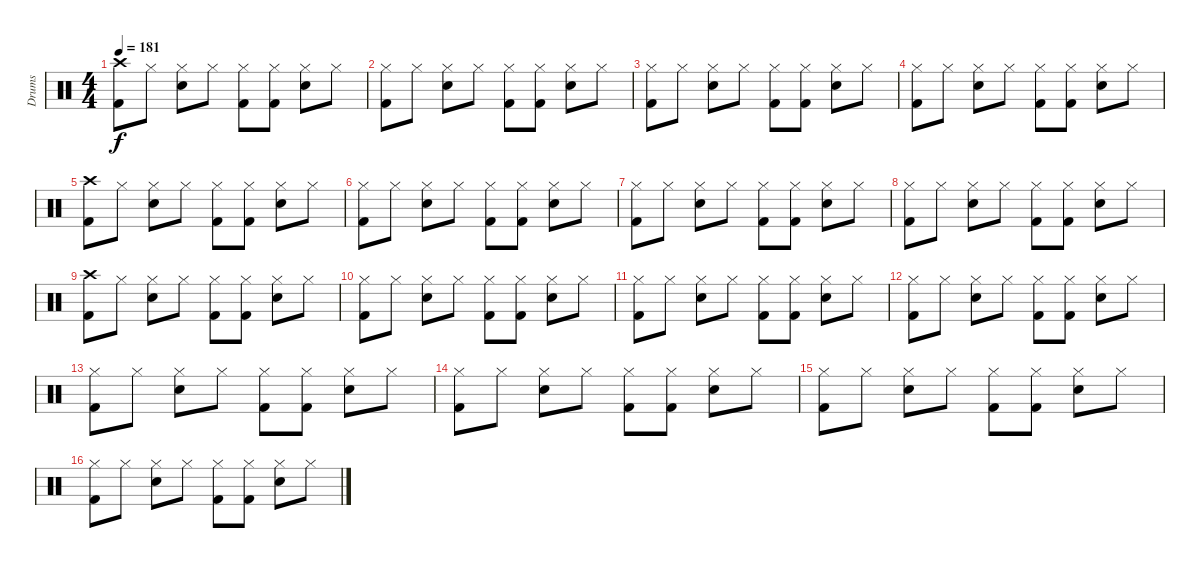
\track ("Drums" "Drums") {instrument percussion}
\staff {score}
\articulation defaults
\ts (4 4)
\tempo 181
\clef neutral
\ks c
("Crash high (hit)" "Kick (hit) 2").8{dy f} "Hi-Hat (closed)".8 ("Hi-Hat (closed)" "Snare (hit) 2").8 "Hi-Hat (closed)".8 ("Hi-Hat (closed)" "Kick (hit) 2").8 ("Hi-Hat (closed)" "Kick (hit) 2").8 ("Hi-Hat (closed)" "Snare (hit) 2").8 "Hi-Hat (closed)".8 |
("Hi-Hat (closed)" "Kick (hit) 2").8 "Hi-Hat (closed)".8 ("Hi-Hat (closed)" "Snare (hit) 2").8 "Hi-Hat (closed)".8 ("Hi-Hat (closed)" "Kick (hit) 2").8 ("Hi-Hat (closed)" "Kick (hit) 2").8 ("Hi-Hat (closed)" "Snare (hit) 2").8 "Hi-Hat (closed)".8 |
("Hi-Hat (closed)" "Kick (hit) 2").8 "Hi-Hat (closed)".8 ("Hi-Hat (closed)" "Snare (hit) 2").8 "Hi-Hat (closed)".8 ("Hi-Hat (closed)" "Kick (hit) 2").8 ("Hi-Hat (closed)" "Kick (hit) 2").8 ("Hi-Hat (closed)" "Snare (hit) 2").8 "Hi-Hat (closed)".8 |
("Hi-Hat (closed)" "Kick (hit) 2").8 "Hi-Hat (closed)".8 ("Hi-Hat (closed)" "Snare (hit) 2").8 "Hi-Hat (closed)".8 ("Hi-Hat (closed)" "Kick (hit) 2").8 ("Hi-Hat (closed)" "Kick (hit) 2").8 ("Hi-Hat (closed)" "Snare (hit) 2").8 "Hi-Hat (closed)".8 |
("Crash high (hit)" "Kick (hit) 2").8 "Hi-Hat (closed)".8 ("Hi-Hat (closed)" "Snare (hit) 2").8 "Hi-Hat (closed)".8 ("Hi-Hat (closed)" "Kick (hit) 2").8 ("Hi-Hat (closed)" "Kick (hit) 2").8 ("Hi-Hat (closed)" "Snare (hit) 2").8 "Hi-Hat (closed)".8 |
("Hi-Hat (closed)" "Kick (hit) 2").8 "Hi-Hat (closed)".8 ("Hi-Hat (closed)" "Snare (hit) 2").8 "Hi-Hat (closed)".8 ("Hi-Hat (closed)" "Kick (hit) 2").8 ("Hi-Hat (closed)" "Kick (hit) 2").8 ("Hi-Hat (closed)" "Snare (hit) 2").8 "Hi-Hat (closed)".8 |
("Hi-Hat (closed)" "Kick (hit) 2").8 "Hi-Hat (closed)".8 ("Hi-Hat (closed)" "Snare (hit) 2").8 "Hi-Hat (closed)".8 ("Hi-Hat (closed)" "Kick (hit) 2").8 ("Hi-Hat (closed)" "Kick (hit) 2").8 ("Hi-Hat (closed)" "Snare (hit) 2").8 "Hi-Hat (closed)".8 |
("Hi-Hat (closed)" "Kick (hit) 2").8 "Hi-Hat (closed)".8 ("Hi-Hat (closed)" "Snare (hit) 2").8 "Hi-Hat (closed)".8 ("Hi-Hat (closed)" "Kick (hit) 2").8 ("Hi-Hat (closed)" "Kick (hit) 2").8 ("Hi-Hat (closed)" "Snare (hit) 2").8 "Hi-Hat (closed)".8 |
("Crash high (hit)" "Kick (hit) 2").8 "Hi-Hat (closed)".8 ("Hi-Hat (closed)" "Snare (hit) 2").8 "Hi-Hat (closed)".8 ("Hi-Hat (closed)" "Kick (hit) 2").8 ("Hi-Hat (closed)" "Kick (hit) 2").8 ("Hi-Hat (closed)" "Snare (hit) 2").8 "Hi-Hat (closed)".8 |
("Hi-Hat (closed)" "Kick (hit) 2").8 "Hi-Hat (closed)".8 ("Hi-Hat (closed)" "Snare (hit) 2").8 "Hi-Hat (closed)".8 ("Hi-Hat (closed)" "Kick (hit) 2").8 ("Hi-Hat (closed)" "Kick (hit) 2").8 ("Hi-Hat (closed)" "Snare (hit) 2").8 "Hi-Hat (closed)".8 |
("Hi-Hat (closed)" "Kick (hit) 2").8 "Hi-Hat (closed)".8 ("Hi-Hat (closed)" "Snare (hit) 2").8 "Hi-Hat (closed)".8 ("Hi-Hat (closed)" "Kick (hit) 2").8 ("Hi-Hat (closed)" "Kick (hit) 2").8 ("Hi-Hat (closed)" "Snare (hit) 2").8 "Hi-Hat (closed)".8 |
("Hi-Hat (closed)" "Kick (hit) 2").8 "Hi-Hat (closed)".8 ("Hi-Hat (closed)" "Snare (hit) 2").8 "Hi-Hat (closed)".8 ("Hi-Hat (closed)" "Kick (hit) 2").8 ("Hi-Hat (closed)" "Kick (hit) 2").8 ("Hi-Hat (closed)" "Snare (hit) 2").8 "Hi-Hat (closed)".8 |
("Hi-Hat (closed)" "Kick (hit) 2").8 "Hi-Hat (closed)".8 ("Hi-Hat (closed)" "Snare (hit) 2").8 "Hi-Hat (closed)".8 ("Hi-Hat (closed)" "Kick (hit) 2").8 ("Hi-Hat (closed)" "Kick (hit) 2").8 ("Hi-Hat (closed)" "Snare (hit) 2").8 "Hi-Hat (closed)".8 |
("Hi-Hat (closed)" "Kick (hit) 2").8 "Hi-Hat (closed)".8 ("Hi-Hat (closed)" "Snare (hit) 2").8 "Hi-Hat (closed)".8 ("Hi-Hat (closed)" "Kick (hit) 2").8 ("Hi-Hat (closed)" "Kick (hit) 2").8 ("Hi-Hat (closed)" "Snare (hit) 2").8 "Hi-Hat (closed)".8 |
("Hi-Hat (closed)" "Kick (hit) 2").8 "Hi-Hat (closed)".8 ("Hi-Hat (closed)" "Snare (hit) 2").8 "Hi-Hat (closed)".8 ("Hi-Hat (closed)" "Kick (hit) 2").8 ("Hi-Hat (closed)" "Kick (hit) 2").8 ("Hi-Hat (closed)" "Snare (hit) 2").8 "Hi-Hat (closed)".8 |
("Hi-Hat (closed)" "Kick (hit) 2").8 "Hi-Hat (closed)".8 ("Hi-Hat (closed)" "Snare (hit) 2").8 "Hi-Hat (closed)".8 ("Hi-Hat (closed)" "Kick (hit) 2").8 ("Hi-Hat (closed)" "Kick (hit) 2").8 ("Hi-Hat (closed)" "Snare (hit) 2").8 "Hi-Hat (closed)".8
